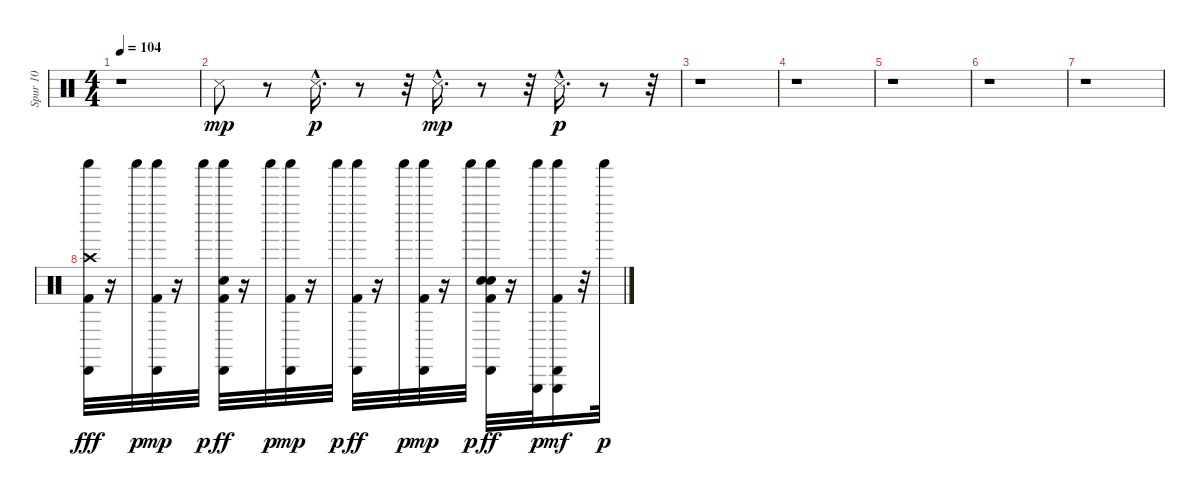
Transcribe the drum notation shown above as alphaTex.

\track ("Spur 10" "Spur 10") {instrument percussion}
\staff {score}
\articulation defaults
\ts (4 4)
\tempo 104
\clef neutral
\ks c
r.1{dy mp} |
"Snare (side stick) 3".8 r.8 "Snare (side stick) 3"{hac}.16{d dy p} r.8 r.32 "Snare (side stick) 3"{hac}.16{d dy mp} r.8 r.32 "Snare (side stick) 3"{hac}.16{d dy p} r.8 r.32 |
r.1 |
r.1 |
r.1 |
r.1 |
r.1 |
("Crash high (hit)" "Kick (hit) 2" "Cabasa (hit)" "Shaker (hit)").32{dy fff} r.16 "Shaker (hit)".32{dy p} ("Kick (hit) 2" "Cabasa (hit)" "Shaker (hit)").32{dy mp} r.16 "Shaker (hit)".32{dy p} ("Kick (hit) 2" "Snare (hit) 2" "Cabasa (hit)" "Shaker (hit)").32{dy ff} r.16 "Shaker (hit)".32{dy p} ("Kick (hit) 2" "Cabasa (hit)" "Shaker (hit)").32{dy mp} r.16 "Shaker (hit)".32{dy p} ("Kick (hit) 2" "Cabasa (hit)" "Shaker (hit)").32{dy ff} r.16 "Shaker (hit)".32{dy p} ("Kick (hit) 2" "Cabasa (hit)" "Shaker (hit)").32{dy mp} r.16 "Shaker (hit)".32{dy p} ("Kick (hit) 2" "Snare (hit) 2" "Hand Clap (hit)" "Cabasa (hit)" "Shaker (hit)").32{dy ff} r.16 ("Triangle (hit)" "Shaker (hit)").32{dy p} ("Kick (hit) 2" "Cabasa (hit)" "Shaker (hit)" "Triangle (hit)").16{dy mf} r.32 "Shaker (hit)".32{dy p}
